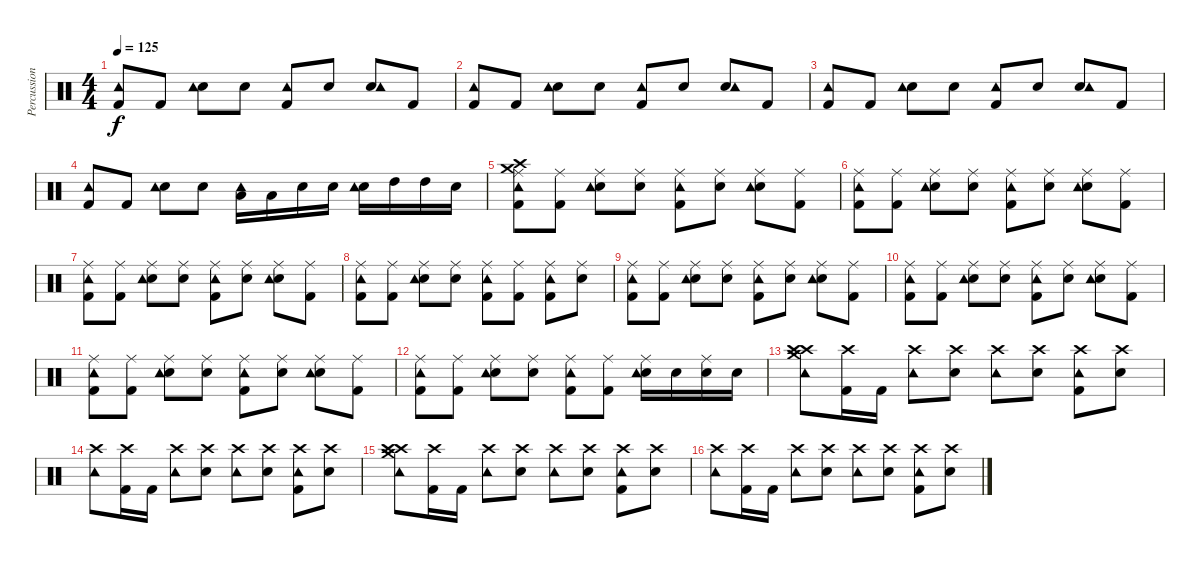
\track ("Percussioni" "Percussion") {instrument percussion}
\staff {score}
\articulation defaults
\ts (4 4)
\tempo 125
\clef neutral
\ks c
("Kick (hit) 2" "Tambourine (hit)").8{dy f} "Kick (hit) 2".8 ("Snare (hit) 2" "Tambourine (hit)").8 "Snare (hit) 2".8 ("Kick (hit) 2" "Tambourine (hit)").8 "Snare (hit) 2".8 ("Snare (hit) 2" "Tambourine (hit)").8 "Kick (hit) 2".8 |
("Kick (hit) 2" "Tambourine (hit)").8 "Kick (hit) 2".8 ("Snare (hit) 2" "Tambourine (hit)").8 "Snare (hit) 2".8 ("Kick (hit) 2" "Tambourine (hit)").8 "Snare (hit) 2".8 ("Snare (hit) 2" "Tambourine (hit)").8 "Kick (hit) 2".8 |
("Kick (hit) 2" "Tambourine (hit)").8 "Kick (hit) 2".8 ("Snare (hit) 2" "Tambourine (hit)").8 "Snare (hit) 2".8 ("Kick (hit) 2" "Tambourine (hit)").8 "Snare (hit) 2".8 ("Snare (hit) 2" "Tambourine (hit)").8 "Kick (hit) 2".8 |
("Kick (hit) 2" "Tambourine (hit)").8 "Kick (hit) 2".8 ("Snare (hit) 2" "Tambourine (hit)").8 "Snare (hit) 2".8 ("Low Floor Tom (hit)" "Tambourine (hit)").16 "Low Floor Tom (hit)".16 "Snare (hit) 2".16 "Snare (hit) 2".16 ("Snare (hit) 2" "Tambourine (hit)").16 "High Tom (hit)".16 "High Tom (hit)".16 "Snare (hit) 2".16 |
("Kick (hit) 2" "Ride (middle)" "Crash high (hit)" "Tambourine (hit)" "Crash medium (hit)").8 ("Kick (hit) 2" "Ride (middle)").8 ("Snare (hit) 2" "Ride (middle)" "Tambourine (hit)").8 ("Snare (hit) 2" "Ride (middle)").8 ("Kick (hit) 2" "Ride (middle)" "Tambourine (hit)").8 ("Snare (hit) 2" "Ride (middle)").8 ("Snare (hit) 2" "Ride (middle)" "Tambourine (hit)").8 ("Kick (hit) 2" "Ride (middle)").8 |
("Kick (hit) 2" "Ride (middle)" "Tambourine (hit)").8 ("Kick (hit) 2" "Ride (middle)").8 ("Snare (hit) 2" "Ride (middle)" "Tambourine (hit)").8 ("Snare (hit) 2" "Ride (middle)").8 ("Kick (hit) 2" "Ride (middle)" "Tambourine (hit)").8 ("Snare (hit) 2" "Ride (middle)").8 ("Snare (hit) 2" "Ride (middle)" "Tambourine (hit)").8 ("Kick (hit) 2" "Ride (middle)").8 |
("Kick (hit) 2" "Ride (middle)" "Tambourine (hit)").8 ("Kick (hit) 2" "Ride (middle)").8 ("Snare (hit) 2" "Ride (middle)" "Tambourine (hit)").8 ("Snare (hit) 2" "Ride (middle)").8 ("Kick (hit) 2" "Ride (middle)" "Tambourine (hit)").8 ("Snare (hit) 2" "Ride (middle)").8 ("Snare (hit) 2" "Ride (middle)" "Tambourine (hit)").8 ("Kick (hit) 2" "Ride (middle)").8 |
("Kick (hit) 2" "Ride (middle)" "Tambourine (hit)").8 ("Kick (hit) 2" "Ride (middle)").8 ("Snare (hit) 2" "Ride (middle)" "Tambourine (hit)").8 ("Snare (hit) 2" "Ride (middle)").8 ("Kick (hit) 2" "Ride (middle)" "Tambourine (hit)").8 ("Kick (hit) 2" "Ride (middle)").8 ("Kick (hit) 2" "Ride (middle)" "Tambourine (hit)").8 ("Snare (hit) 2" "Ride (middle)").8 |
("Kick (hit) 2" "Ride (middle)" "Tambourine (hit)").8 ("Kick (hit) 2" "Ride (middle)").8 ("Snare (hit) 2" "Ride (middle)" "Tambourine (hit)").8 ("Snare (hit) 2" "Ride (middle)").8 ("Kick (hit) 2" "Ride (middle)" "Tambourine (hit)").8 ("Snare (hit) 2" "Ride (middle)").8 ("Snare (hit) 2" "Ride (middle)" "Tambourine (hit)").8 ("Kick (hit) 2" "Ride (middle)").8 |
("Kick (hit) 2" "Ride (middle)" "Tambourine (hit)").8 ("Kick (hit) 2" "Ride (middle)").8 ("Snare (hit) 2" "Ride (middle)" "Tambourine (hit)").8 ("Snare (hit) 2" "Ride (middle)").8 ("Kick (hit) 2" "Ride (middle)" "Tambourine (hit)").8 ("Snare (hit) 2" "Ride (middle)").8 ("Snare (hit) 2" "Ride (middle)" "Tambourine (hit)").8 ("Kick (hit) 2" "Ride (middle)").8 |
("Kick (hit) 2" "Ride (middle)" "Tambourine (hit)").8 ("Kick (hit) 2" "Ride (middle)").8 ("Snare (hit) 2" "Ride (middle)" "Tambourine (hit)").8 ("Snare (hit) 2" "Ride (middle)").8 ("Kick (hit) 2" "Ride (middle)" "Tambourine (hit)").8 ("Snare (hit) 2" "Ride (middle)").8 ("Snare (hit) 2" "Ride (middle)" "Tambourine (hit)").8 ("Kick (hit) 2" "Ride (middle)").8 |
("Kick (hit) 2" "Ride (middle)" "Tambourine (hit)").8 ("Kick (hit) 2" "Ride (middle)").8 ("Snare (hit) 2" "Ride (middle)" "Tambourine (hit)").8 ("Snare (hit) 2" "Ride (middle)").8 ("Kick (hit) 2" "Ride (middle)" "Tambourine (hit)").8 ("Kick (hit) 2" "Ride (middle)").8 ("Snare (hit) 2" "Ride (middle)" "Tambourine (hit)").16 "Snare (hit) 2".16 ("Snare (hit) 2" "Ride (middle)").16 "Snare (hit) 2".16 |
("Crash high (hit)" "Crash high (hit)" "Crash medium (hit)" "Tambourine (hit)").8 ("Crash high (hit)" "Kick (hit) 2").16 "Kick (hit) 2".16 ("Crash high (hit)" "Tambourine (hit)").8 ("Crash high (hit)" "Snare (hit) 2").8 ("Crash high (hit)" "Tambourine (hit)").8 ("Crash high (hit)" "Snare (hit) 2").8 ("Crash high (hit)" "Kick (hit) 2" "Tambourine (hit)").8 ("Crash high (hit)" "Snare (hit) 2").8 |
("Crash high (hit)" "Tambourine (hit)").8 ("Crash high (hit)" "Kick (hit) 2").16 "Kick (hit) 2".16 ("Crash high (hit)" "Tambourine (hit)").8 ("Crash high (hit)" "Snare (hit) 2").8 ("Crash high (hit)" "Tambourine (hit)").8 ("Crash high (hit)" "Snare (hit) 2").8 ("Crash high (hit)" "Kick (hit) 2" "Tambourine (hit)").8 ("Crash high (hit)" "Snare (hit) 2").8 |
("Crash high (hit)" "Crash high (hit)" "Crash medium (hit)" "Tambourine (hit)").8 ("Crash high (hit)" "Kick (hit) 2").16 "Kick (hit) 2".16 ("Crash high (hit)" "Tambourine (hit)").8 ("Crash high (hit)" "Snare (hit) 2").8 ("Crash high (hit)" "Tambourine (hit)").8 ("Crash high (hit)" "Snare (hit) 2").8 ("Crash high (hit)" "Kick (hit) 2" "Tambourine (hit)").8 ("Crash high (hit)" "Snare (hit) 2").8 |
("Crash high (hit)" "Tambourine (hit)").8 ("Crash high (hit)" "Kick (hit) 2").16 "Kick (hit) 2".16 ("Crash high (hit)" "Tambourine (hit)").8 ("Crash high (hit)" "Snare (hit) 2").8 ("Crash high (hit)" "Tambourine (hit)").8 ("Crash high (hit)" "Snare (hit) 2").8 ("Crash high (hit)" "Kick (hit) 2" "Tambourine (hit)").8 ("Crash high (hit)" "Snare (hit) 2").8
